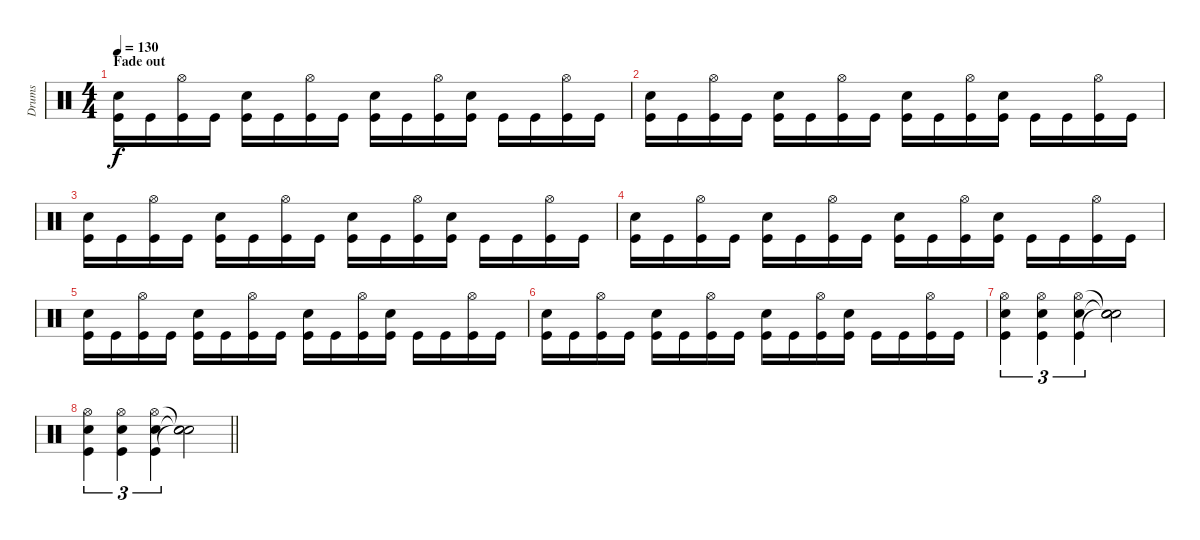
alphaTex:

\track ("Drums" "Drums") {instrument percussion}
\staff {score}
\articulation defaults
\ts (4 4)
\section ("" "Fade out")
\tempo 130
\clef neutral
\ks c
("Snare (hit) 2" "Kick (hit)").16{dy f volume 7} "Kick (hit)".16 ("Hi-Hat (open)" "Kick (hit)").16 "Kick (hit)".16 ("Snare (hit) 2" "Kick (hit)").16 "Kick (hit)".16 ("Hi-Hat (open)" "Kick (hit)").16 "Kick (hit)".16 ("Snare (hit) 2" "Kick (hit)").16 "Kick (hit)".16 ("Hi-Hat (open)" "Kick (hit)").16 ("Snare (hit) 2" "Kick (hit)").16 "Kick (hit)".16 "Kick (hit)".16 ("Hi-Hat (open)" "Kick (hit)").16 "Kick (hit)".16 |
("Snare (hit) 2" "Kick (hit)").16 "Kick (hit)".16 ("Hi-Hat (open)" "Kick (hit)").16 "Kick (hit)".16 ("Snare (hit) 2" "Kick (hit)").16 "Kick (hit)".16 ("Hi-Hat (open)" "Kick (hit)").16 "Kick (hit)".16 ("Snare (hit) 2" "Kick (hit)").16 "Kick (hit)".16 ("Hi-Hat (open)" "Kick (hit)").16 ("Snare (hit) 2" "Kick (hit)").16 "Kick (hit)".16 "Kick (hit)".16 ("Hi-Hat (open)" "Kick (hit)").16 "Kick (hit)".16 |
("Snare (hit) 2" "Kick (hit)").16 "Kick (hit)".16 ("Hi-Hat (open)" "Kick (hit)").16 "Kick (hit)".16 ("Snare (hit) 2" "Kick (hit)").16 "Kick (hit)".16 ("Hi-Hat (open)" "Kick (hit)").16 "Kick (hit)".16 ("Snare (hit) 2" "Kick (hit)").16 "Kick (hit)".16 ("Hi-Hat (open)" "Kick (hit)").16 ("Snare (hit) 2" "Kick (hit)").16 "Kick (hit)".16 "Kick (hit)".16 ("Hi-Hat (open)" "Kick (hit)").16 "Kick (hit)".16 |
("Snare (hit) 2" "Kick (hit)").16 "Kick (hit)".16 ("Hi-Hat (open)" "Kick (hit)").16 "Kick (hit)".16 ("Snare (hit) 2" "Kick (hit)").16 "Kick (hit)".16 ("Hi-Hat (open)" "Kick (hit)").16 "Kick (hit)".16 ("Snare (hit) 2" "Kick (hit)").16 "Kick (hit)".16 ("Hi-Hat (open)" "Kick (hit)").16 ("Snare (hit) 2" "Kick (hit)").16 "Kick (hit)".16 "Kick (hit)".16 ("Hi-Hat (open)" "Kick (hit)").16 "Kick (hit)".16 |
("Snare (hit) 2" "Kick (hit)").16{volume 0} "Kick (hit)".16 ("Hi-Hat (open)" "Kick (hit)").16 "Kick (hit)".16 ("Snare (hit) 2" "Kick (hit)").16 "Kick (hit)".16 ("Hi-Hat (open)" "Kick (hit)").16 "Kick (hit)".16 ("Snare (hit) 2" "Kick (hit)").16 "Kick (hit)".16 ("Hi-Hat (open)" "Kick (hit)").16 ("Snare (hit) 2" "Kick (hit)").16 "Kick (hit)".16 "Kick (hit)".16 ("Hi-Hat (open)" "Kick (hit)").16 "Kick (hit)".16 |
("Snare (hit) 2" "Kick (hit)").16 "Kick (hit)".16 ("Hi-Hat (open)" "Kick (hit)").16 "Kick (hit)".16 ("Snare (hit) 2" "Kick (hit)").16 "Kick (hit)".16 ("Hi-Hat (open)" "Kick (hit)").16 "Kick (hit)".16 ("Snare (hit) 2" "Kick (hit)").16 "Kick (hit)".16 ("Hi-Hat (open)" "Kick (hit)").16 ("Snare (hit) 2" "Kick (hit)").16 "Kick (hit)".16 "Kick (hit)".16 ("Hi-Hat (open)" "Kick (hit)").16 "Kick (hit)".16 |
("Hi-Hat (open)" "Snare (hit) 2" "Kick (hit)").4{tu (3 2)} ("Hi-Hat (open)" "Snare (hit) 2" "Kick (hit)").4{tu (3 2)} ("Hi-Hat (open)" "Kick (hit)" "Snare (hit) 2").4{tu (3 2)} ("Snare (hit)"{t} "Snare (hit)"{t} "Snare (hit)"{t}).2 |
\barLineRight lightlight
("Hi-Hat (open)" "Snare (hit) 2" "Kick (hit)").4{tu (3 2)} ("Hi-Hat (open)" "Snare (hit) 2" "Kick (hit)").4{tu (3 2)} ("Hi-Hat (open)" "Kick (hit)" "Snare (hit) 2").4{tu (3 2)} ("Snare (hit)"{t} "Snare (hit)"{t} "Snare (hit)"{t}).2
